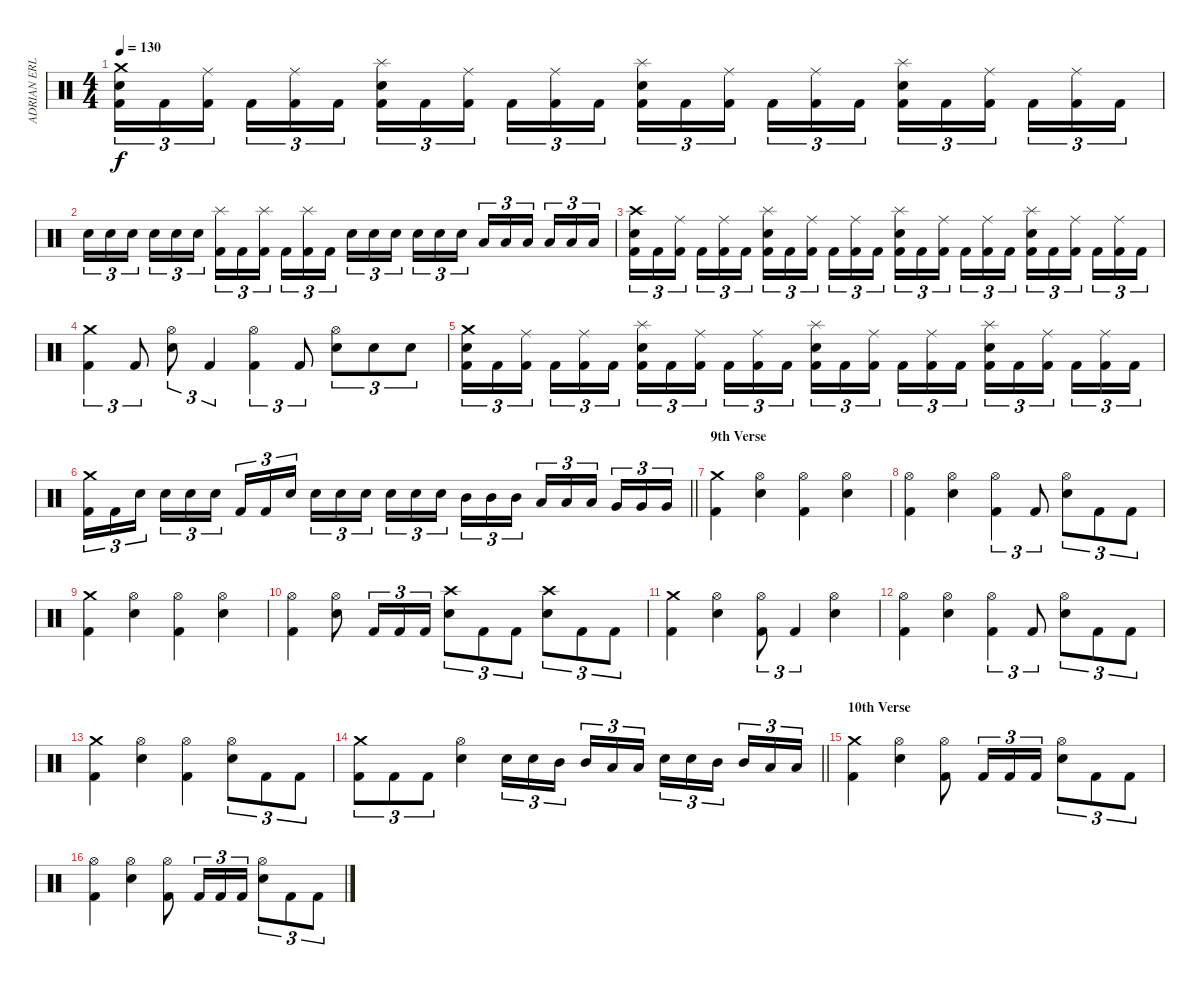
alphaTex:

\track ("ADRIAN ERLANDSSON" "ADRIAN ERL") {instrument percussion}
\staff {score}
\articulation defaults
\ts (4 4)
\tempo 130
\clef neutral
\ks c
("Kick (hit) 2" "Electric Snare (hit)" "Crash medium (hit)").16{tu (3 2) dy f} "Kick (hit) 2".16{tu (3 2)} ("Kick (hit) 2" "Ride (middle)").16{tu (3 2) beam splitsecondary} "Kick (hit) 2".16{tu (3 2)} ("Kick (hit) 2" "Ride (middle)").16{tu (3 2)} "Kick (hit) 2".16{tu (3 2)} ("Kick (hit) 2" "Electric Snare (hit)" "Splash (hit)").16{tu (3 2)} "Kick (hit) 2".16{tu (3 2)} ("Kick (hit) 2" "Ride (middle)").16{tu (3 2) beam splitsecondary} "Kick (hit) 2".16{tu (3 2)} ("Kick (hit) 2" "Ride (middle)").16{tu (3 2)} "Kick (hit) 2".16{tu (3 2)} ("Kick (hit) 2" "Electric Snare (hit)" "Splash (hit)").16{tu (3 2)} "Kick (hit) 2".16{tu (3 2)} ("Kick (hit) 2" "Ride (middle)").16{tu (3 2) beam splitsecondary} "Kick (hit) 2".16{tu (3 2)} ("Kick (hit) 2" "Ride (middle)").16{tu (3 2)} "Kick (hit) 2".16{tu (3 2)} ("Kick (hit) 2" "Electric Snare (hit)" "Splash (hit)").16{tu (3 2)} "Kick (hit) 2".16{tu (3 2)} ("Kick (hit) 2" "Ride (middle)").16{tu (3 2) beam splitsecondary} "Kick (hit) 2".16{tu (3 2)} ("Kick (hit) 2" "Ride (middle)").16{tu (3 2)} "Kick (hit) 2".16{tu (3 2)} |
"Electric Snare (hit)".16{tu (3 2)} "Electric Snare (hit)".16{tu (3 2)} "Electric Snare (hit)".16{tu (3 2) beam splitsecondary} "Electric Snare (hit)".16{tu (3 2)} "Electric Snare (hit)".16{tu (3 2)} "Electric Snare (hit)".16{tu (3 2)} ("Kick (hit) 2" "Splash (hit)").16{tu (3 2)} "Kick (hit) 2".16{tu (3 2)} ("Kick (hit) 2" "Splash (hit)").16{tu (3 2) beam splitsecondary} "Kick (hit) 2".16{tu (3 2)} ("Kick (hit) 2" "Splash (hit)").16{tu (3 2)} "Kick (hit) 2".16{tu (3 2)} "Electric Snare (hit)".16{tu (3 2)} "Electric Snare (hit)".16{tu (3 2)} "Electric Snare (hit)".16{tu (3 2) beam splitsecondary} "Electric Snare (hit)".16{tu (3 2)} "Electric Snare (hit)".16{tu (3 2)} "Electric Snare (hit)".16{tu (3 2)} "Low Tom (hit)".16{tu (3 2)} "Low Tom (hit)".16{tu (3 2)} "Low Tom (hit)".16{tu (3 2) beam splitsecondary} "Low Tom (hit)".16{tu (3 2)} "Low Tom (hit)".16{tu (3 2)} "Low Tom (hit)".16{tu (3 2)} |
("Kick (hit) 2" "Electric Snare (hit)" "Crash high (hit)").16{tu (3 2)} "Kick (hit) 2".16{tu (3 2)} ("Kick (hit) 2" "Ride (middle)").16{tu (3 2) beam splitsecondary} "Kick (hit) 2".16{tu (3 2)} ("Kick (hit) 2" "Ride (middle)").16{tu (3 2)} "Kick (hit) 2".16{tu (3 2)} ("Kick (hit) 2" "Electric Snare (hit)" "Splash (hit)").16{tu (3 2)} "Kick (hit) 2".16{tu (3 2)} ("Kick (hit) 2" "Ride (middle)").16{tu (3 2) beam splitsecondary} "Kick (hit) 2".16{tu (3 2)} ("Kick (hit) 2" "Ride (middle)").16{tu (3 2)} "Kick (hit) 2".16{tu (3 2)} ("Kick (hit) 2" "Electric Snare (hit)" "Splash (hit)").16{tu (3 2)} "Kick (hit) 2".16{tu (3 2)} ("Kick (hit) 2" "Ride (middle)").16{tu (3 2) beam splitsecondary} "Kick (hit) 2".16{tu (3 2)} ("Kick (hit) 2" "Ride (middle)").16{tu (3 2)} "Kick (hit) 2".16{tu (3 2)} ("Kick (hit) 2" "Electric Snare (hit)" "Splash (hit)").16{tu (3 2)} "Kick (hit) 2".16{tu (3 2)} ("Kick (hit) 2" "Ride (middle)").16{tu (3 2) beam splitsecondary} "Kick (hit) 2".16{tu (3 2)} ("Kick (hit) 2" "Ride (middle)").16{tu (3 2)} "Kick (hit) 2".16{tu (3 2)} |
("Kick (hit) 2" "Crash medium (hit)").4{tu (3 2)} "Kick (hit) 2".8{tu (3 2)} ("Electric Snare (hit)" "Hi-Hat (open)").8{tu (3 2)} "Kick (hit) 2".4{tu (3 2)} ("Kick (hit) 2" "Hi-Hat (open)").4{tu (3 2)} "Kick (hit) 2".8{tu (3 2)} ("Electric Snare (hit)" "Hi-Hat (open)").8{tu (3 2)} "Electric Snare (hit)".8{tu (3 2)} "Electric Snare (hit)".8{tu (3 2)} |
("Kick (hit) 2" "Electric Snare (hit)" "Crash medium (hit)").16{tu (3 2)} "Kick (hit) 2".16{tu (3 2)} ("Kick (hit) 2" "Ride (middle)").16{tu (3 2) beam splitsecondary} "Kick (hit) 2".16{tu (3 2)} ("Kick (hit) 2" "Ride (middle)").16{tu (3 2)} "Kick (hit) 2".16{tu (3 2)} ("Kick (hit) 2" "Electric Snare (hit)" "Splash (hit)").16{tu (3 2)} "Kick (hit) 2".16{tu (3 2)} ("Kick (hit) 2" "Ride (middle)").16{tu (3 2) beam splitsecondary} "Kick (hit) 2".16{tu (3 2)} ("Kick (hit) 2" "Ride (middle)").16{tu (3 2)} "Kick (hit) 2".16{tu (3 2)} ("Kick (hit) 2" "Electric Snare (hit)" "Splash (hit)").16{tu (3 2)} "Kick (hit) 2".16{tu (3 2)} ("Kick (hit) 2" "Ride (middle)").16{tu (3 2) beam splitsecondary} "Kick (hit) 2".16{tu (3 2)} ("Kick (hit) 2" "Ride (middle)").16{tu (3 2)} "Kick (hit) 2".16{tu (3 2)} ("Kick (hit) 2" "Electric Snare (hit)" "Splash (hit)").16{tu (3 2)} "Kick (hit) 2".16{tu (3 2)} ("Kick (hit) 2" "Ride (middle)").16{tu (3 2) beam splitsecondary} "Kick (hit) 2".16{tu (3 2)} ("Kick (hit) 2" "Ride (middle)").16{tu (3 2)} "Kick (hit) 2".16{tu (3 2)} |
\barLineRight lightlight
("Kick (hit) 2" "Crash medium (hit)").16{tu (3 2)} "Kick (hit) 2".16{tu (3 2)} "Electric Snare (hit)".16{tu (3 2) beam splitsecondary} "Electric Snare (hit)".16{tu (3 2)} "Electric Snare (hit)".16{tu (3 2)} "Electric Snare (hit)".16{tu (3 2)} "Kick (hit) 2".16{tu (3 2)} "Kick (hit) 2".16{tu (3 2)} "Electric Snare (hit)".16{tu (3 2) beam splitsecondary} "Electric Snare (hit)".16{tu (3 2)} "Electric Snare (hit)".16{tu (3 2)} "Electric Snare (hit)".16{tu (3 2)} "Electric Snare (hit)".16{tu (3 2)} "Electric Snare (hit)".16{tu (3 2)} "Electric Snare (hit)".16{tu (3 2) beam splitsecondary} "Mid Tom (hit)".16{tu (3 2)} "Mid Tom (hit)".16{tu (3 2)} "Mid Tom (hit)".16{tu (3 2)} "Low Tom (hit)".16{tu (3 2)} "Low Tom (hit)".16{tu (3 2)} "Low Tom (hit)".16{tu (3 2) beam splitsecondary} "Very Low Tom (hit)".16{tu (3 2)} "Very Low Tom (hit)".16{tu (3 2)} "Very Low Tom (hit)".16{tu (3 2)} |
\section ("" "9th Verse")
("Kick (hit) 2" "Crash medium (hit)").4 ("Electric Snare (hit)" "Hi-Hat (open)").4 ("Kick (hit) 2" "Hi-Hat (open)").4 ("Electric Snare (hit)" "Hi-Hat (open)").4 |
("Kick (hit) 2" "Hi-Hat (open)").4 ("Electric Snare (hit)" "Hi-Hat (open)").4 ("Kick (hit) 2" "Hi-Hat (open)").4{tu (3 2)} "Kick (hit) 2".8{tu (3 2)} ("Electric Snare (hit)" "Hi-Hat (open)").8{tu (3 2)} "Kick (hit) 2".8{tu (3 2)} "Kick (hit) 2".8{tu (3 2)} |
("Kick (hit) 2" "Crash medium (hit)").4 ("Electric Snare (hit)" "Hi-Hat (open)").4 ("Kick (hit) 2" "Hi-Hat (open)").4 ("Electric Snare (hit)" "Hi-Hat (open)").4 |
("Kick (hit) 2" "Hi-Hat (open)").4 ("Electric Snare (hit)" "Hi-Hat (open)").8 "Kick (hit) 2".16{tu (3 2)} "Kick (hit) 2".16{tu (3 2)} "Kick (hit) 2".16{tu (3 2)} ("Electric Snare (hit)" "Crash high (hit)").8{tu (3 2)} "Kick (hit) 2".8{tu (3 2)} "Kick (hit) 2".8{tu (3 2)} ("Electric Snare (hit)" "Crash high (hit)").8{tu (3 2)} "Kick (hit) 2".8{tu (3 2)} "Kick (hit) 2".8{tu (3 2)} |
("Kick (hit) 2" "Crash medium (hit)").4 ("Electric Snare (hit)" "Hi-Hat (open)").4 ("Kick (hit) 2" "Hi-Hat (open)").8{tu (3 2)} "Kick (hit) 2".4{tu (3 2)} ("Electric Snare (hit)" "Hi-Hat (open)").4 |
("Kick (hit) 2" "Hi-Hat (open)").4 ("Electric Snare (hit)" "Hi-Hat (open)").4 ("Kick (hit) 2" "Hi-Hat (open)").4{tu (3 2)} "Kick (hit) 2".8{tu (3 2)} ("Electric Snare (hit)" "Hi-Hat (open)").8{tu (3 2)} "Kick (hit) 2".8{tu (3 2)} "Kick (hit) 2".8{tu (3 2)} |
("Kick (hit) 2" "Crash medium (hit)").4 ("Electric Snare (hit)" "Hi-Hat (open)").4 ("Kick (hit) 2" "Hi-Hat (open)").4 ("Electric Snare (hit)" "Hi-Hat (open)").8{tu (3 2)} "Kick (hit) 2".8{tu (3 2)} "Kick (hit) 2".8{tu (3 2)} |
\barLineRight lightlight
("Kick (hit) 2" "Crash medium (hit)").8{tu (3 2)} "Kick (hit) 2".8{tu (3 2)} "Kick (hit) 2".8{tu (3 2)} ("Electric Snare (hit)" "Hi-Hat (open)").4 "Electric Snare (hit)".16{tu (3 2)} "Electric Snare (hit)".16{tu (3 2)} "Mid Tom (hit)".16{tu (3 2) beam splitsecondary} "Mid Tom (hit)".16{tu (3 2)} "Low Tom (hit)".16{tu (3 2)} "Low Tom (hit)".16{tu (3 2)} "Electric Snare (hit)".16{tu (3 2)} "Electric Snare (hit)".16{tu (3 2)} "Mid Tom (hit)".16{tu (3 2) beam splitsecondary} "Mid Tom (hit)".16{tu (3 2)} "Low Tom (hit)".16{tu (3 2)} "Low Tom (hit)".16{tu (3 2)} |
\section ("" "10th Verse")
("Kick (hit) 2" "Crash medium (hit)").4 ("Electric Snare (hit)" "Hi-Hat (open)").4 ("Kick (hit) 2" "Hi-Hat (open)").8 "Kick (hit) 2".16{tu (3 2)} "Kick (hit) 2".16{tu (3 2)} "Kick (hit) 2".16{tu (3 2)} ("Electric Snare (hit)" "Hi-Hat (open)").8{tu (3 2)} "Kick (hit) 2".8{tu (3 2)} "Kick (hit) 2".8{tu (3 2)} |
("Kick (hit) 2" "Hi-Hat (open)").4 ("Electric Snare (hit)" "Hi-Hat (open)").4 ("Kick (hit) 2" "Hi-Hat (open)").8 "Kick (hit) 2".16{tu (3 2)} "Kick (hit) 2".16{tu (3 2)} "Kick (hit) 2".16{tu (3 2)} ("Electric Snare (hit)" "Hi-Hat (open)").8{tu (3 2)} "Kick (hit) 2".8{tu (3 2)} "Kick (hit) 2".8{tu (3 2)}
